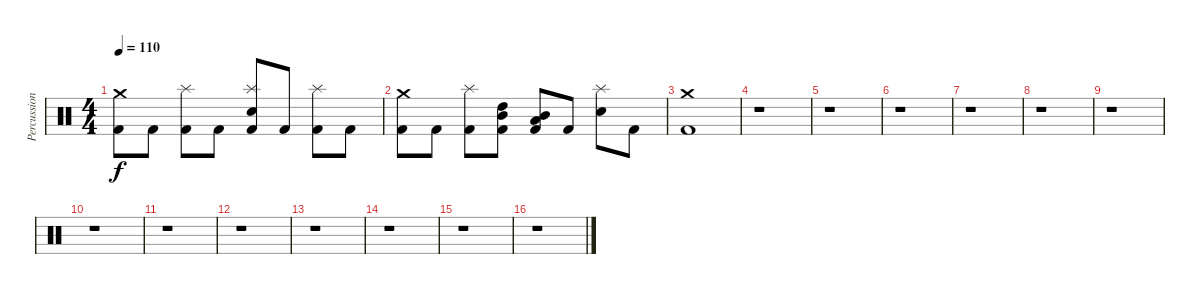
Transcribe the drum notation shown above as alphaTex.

\track ("Percussion" "Percussion") {instrument percussion}
\staff {score}
\articulation defaults
\ts (4 4)
\tempo 110
\clef neutral
\ks c
("Crash medium (hit)" "Kick (hit) 2").8{dy f} "Kick (hit) 2".8 ("Splash (hit)" "Kick (hit) 2").8 "Kick (hit) 2".8 ("Splash (hit)" "Snare (hit) 2" "Kick (hit) 2").8 "Kick (hit) 2".8 ("Splash (hit)" "Kick (hit) 2").8 "Kick (hit) 2".8 |
("Crash medium (hit)" "Kick (hit) 2").8 "Kick (hit) 2".8 ("Splash (hit)" "Kick (hit) 2").8 ("High Tom (hit)" "Mid Tom (hit)" "Kick (hit) 2").8 ("Mid Tom (hit)" "Low Tom (hit)" "Kick (hit) 2").8 "Kick (hit) 2".8 ("Splash (hit)" "Snare (hit) 2").8 "Kick (hit) 2".8 |
("Crash medium (hit)" "Kick (hit) 2").1 |
r.1 |
r.1 |
r.1 |
r.1 |
r.1 |
r.1 |
r.1 |
r.1 |
r.1 |
r.1 |
r.1 |
r.1 |
r.1
